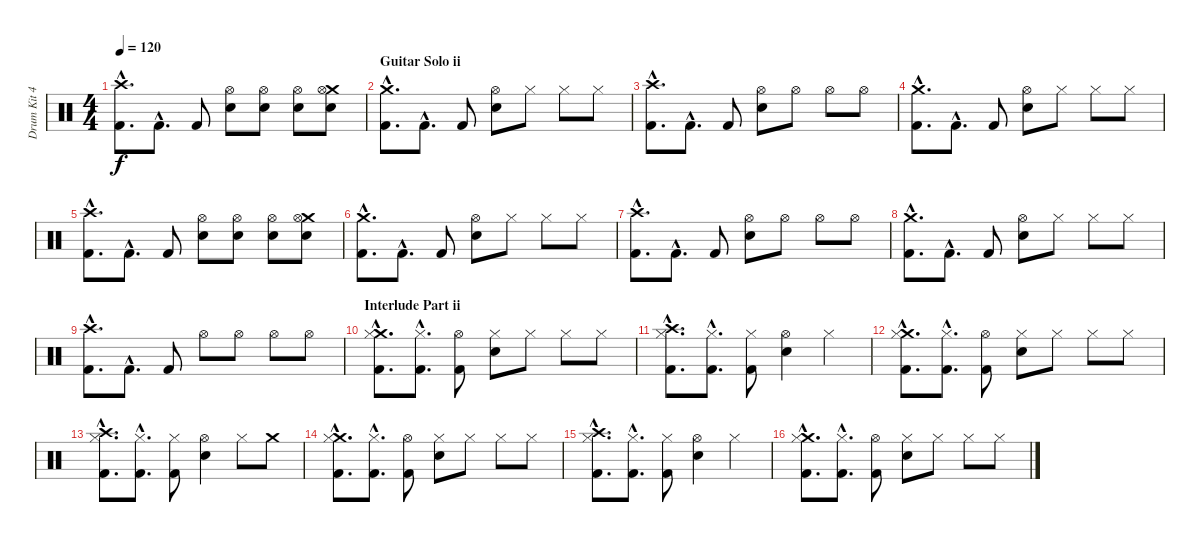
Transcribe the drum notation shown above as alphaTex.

\track ("Drum Kit 42" "Drum Kit 4") {instrument percussion}
\staff {score}
\articulation defaults
\ts (4 4)
\tempo 120
\clef neutral
\ks c
("Crash high (hit)"{hac} "Kick (hit) 2"{hac}).8{d dy f} "Kick (hit) 2"{hac}.8{d} "Kick (hit) 2".8 ("Hi-Hat (open)" "Snare (hit) 2").8 ("Hi-Hat (open)" "Snare (hit) 2").8 ("Hi-Hat (open)" "Snare (hit) 2").8 ("Crash medium (hit)" "Hi-Hat (open)" "Snare (hit) 2").8 |
\section ("" "Guitar Solo ii")
("Crash medium (hit)"{hac} "Kick (hit) 2"{hac}).8{d} "Kick (hit) 2"{hac}.8{d} "Kick (hit) 2".8 ("Hi-Hat (open)" "Snare (hit) 2").8 "Hi-Hat (closed)".8 "Hi-Hat (closed)".8 "Hi-Hat (closed)".8 |
("Crash high (hit)"{hac} "Kick (hit) 2"{hac}).8{d} "Kick (hit) 2"{hac}.8{d} "Kick (hit) 2".8 ("Hi-Hat (open)" "Snare (hit) 2").8 "Hi-Hat (open)".8 "Hi-Hat (open)".8 "Hi-Hat (open)".8 |
("Crash medium (hit)"{hac} "Kick (hit) 2"{hac}).8{d} "Kick (hit) 2"{hac}.8{d} "Kick (hit) 2".8 ("Hi-Hat (open)" "Snare (hit) 2").8 "Hi-Hat (closed)".8 "Hi-Hat (closed)".8 "Hi-Hat (closed)".8 |
("Crash high (hit)"{hac} "Kick (hit) 2"{hac}).8{d} "Kick (hit) 2"{hac}.8{d} "Kick (hit) 2".8 ("Hi-Hat (open)" "Snare (hit) 2").8 ("Hi-Hat (open)" "Snare (hit) 2").8 ("Hi-Hat (open)" "Snare (hit) 2").8 ("Crash medium (hit)" "Hi-Hat (open)" "Snare (hit) 2").8 |
("Crash medium (hit)"{hac} "Kick (hit) 2"{hac}).8{d} "Kick (hit) 2"{hac}.8{d} "Kick (hit) 2".8 ("Hi-Hat (open)" "Snare (hit) 2").8 "Hi-Hat (closed)".8 "Hi-Hat (closed)".8 "Hi-Hat (closed)".8 |
("Crash high (hit)"{hac} "Kick (hit) 2"{hac}).8{d} "Kick (hit) 2"{hac}.8{d} "Kick (hit) 2".8 ("Hi-Hat (open)" "Snare (hit) 2").8 "Hi-Hat (open)".8 "Hi-Hat (open)".8 "Hi-Hat (open)".8 |
("Crash medium (hit)"{hac} "Kick (hit) 2"{hac}).8{d} "Kick (hit) 2"{hac}.8{d} "Kick (hit) 2".8 ("Hi-Hat (open)" "Snare (hit) 2").8 "Hi-Hat (closed)".8 "Hi-Hat (closed)".8 "Hi-Hat (closed)".8 |
("Crash high (hit)"{hac} "Kick (hit) 2"{hac}).8{d} "Kick (hit) 2"{hac}.8{d} "Kick (hit) 2".8 "Hi-Hat (open)".8{volume 10} "Hi-Hat (open)".8 "Hi-Hat (open)".8 "Hi-Hat (open)".8 |
\section ("" "Interlude Part ii")
("Crash medium (hit)"{hac} "Hi-Hat (closed)"{hac} "Kick (hit) 2"{hac}).8{d} ("Hi-Hat (closed)"{hac} "Kick (hit) 2"{hac}).8{d} ("Hi-Hat (open)" "Kick (hit) 2").8 ("Hi-Hat (closed)" "Snare (hit) 2").8 "Hi-Hat (closed)".8 "Hi-Hat (closed)".8 "Hi-Hat (closed)".8 |
("Crash high (hit)"{hac} "Hi-Hat (closed)"{hac} "Kick (hit) 2"{hac}).8{d} ("Hi-Hat (closed)"{hac} "Kick (hit) 2"{hac}).8{d} ("Hi-Hat (closed)" "Kick (hit) 2").8 ("Hi-Hat (open)" "Snare (hit) 2").4 "Hi-Hat (closed)".4 |
("Crash medium (hit)"{hac} "Hi-Hat (closed)"{hac} "Kick (hit) 2"{hac}).8{d} ("Hi-Hat (closed)"{hac} "Kick (hit) 2"{hac}).8{d} ("Hi-Hat (open)" "Kick (hit) 2").8 ("Hi-Hat (closed)" "Snare (hit) 2").8 "Hi-Hat (closed)".8 "Hi-Hat (closed)".8 "Hi-Hat (closed)".8 |
("Crash high (hit)"{hac} "Hi-Hat (closed)"{hac} "Kick (hit) 2"{hac}).8{d} ("Hi-Hat (closed)"{hac} "Kick (hit) 2"{hac}).8{d} ("Hi-Hat (closed)" "Kick (hit) 2").8 ("Hi-Hat (open)" "Snare (hit) 2").4 "Hi-Hat (closed)".8 "Crash medium (hit)".8 |
("Crash medium (hit)"{hac} "Hi-Hat (closed)"{hac} "Kick (hit) 2"{hac}).8{d} ("Hi-Hat (closed)"{hac} "Kick (hit) 2"{hac}).8{d} ("Hi-Hat (open)" "Kick (hit) 2").8 ("Hi-Hat (closed)" "Snare (hit) 2").8 "Hi-Hat (closed)".8 "Hi-Hat (closed)".8 "Hi-Hat (closed)".8 |
("Crash high (hit)"{hac} "Hi-Hat (closed)"{hac} "Kick (hit) 2"{hac}).8{d} ("Hi-Hat (closed)"{hac} "Kick (hit) 2"{hac}).8{d} ("Hi-Hat (closed)" "Kick (hit) 2").8 ("Hi-Hat (open)" "Snare (hit) 2").4 "Hi-Hat (closed)".4 |
("Crash medium (hit)"{hac} "Hi-Hat (closed)"{hac} "Kick (hit) 2"{hac}).8{d} ("Hi-Hat (closed)"{hac} "Kick (hit) 2"{hac}).8{d} ("Hi-Hat (open)" "Kick (hit) 2").8 ("Hi-Hat (closed)" "Snare (hit) 2").8 "Hi-Hat (closed)".8 "Hi-Hat (closed)".8 "Hi-Hat (closed)".8
